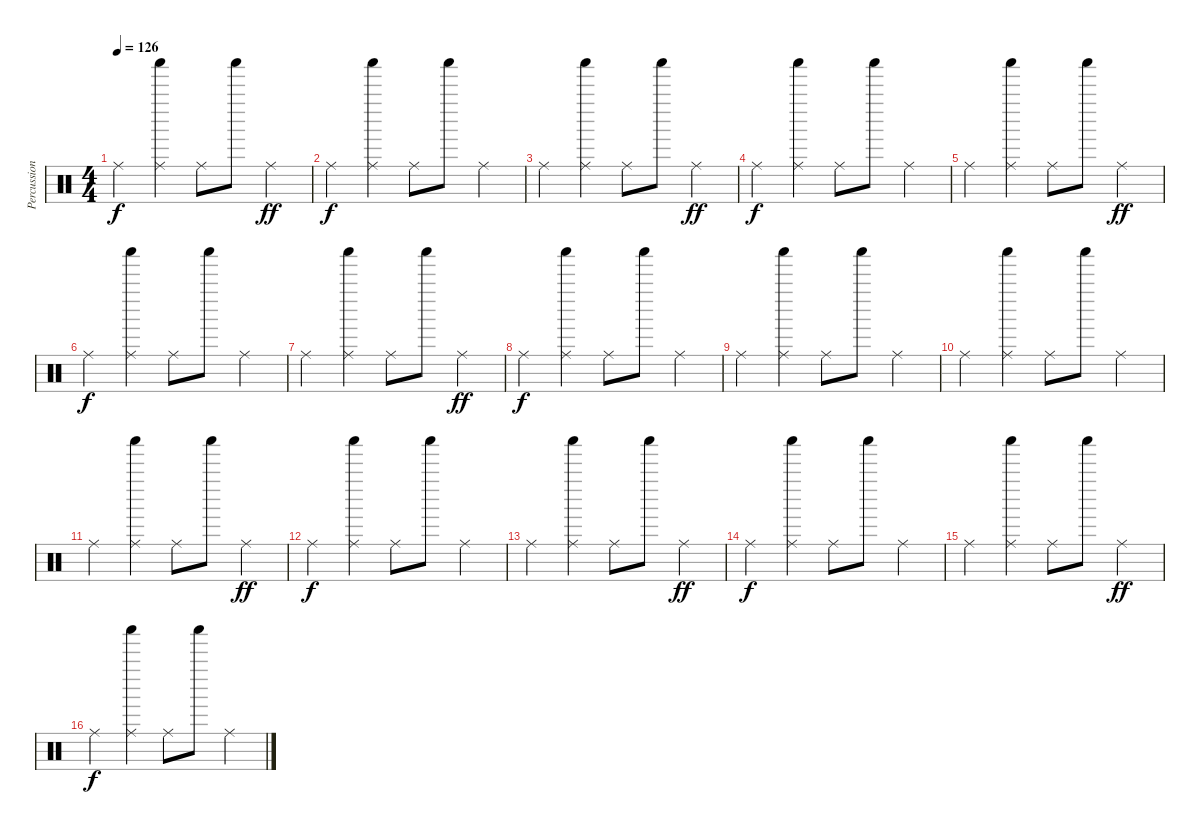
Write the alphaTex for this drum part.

\track ("Percussion" "Percussion") {instrument percussion}
\staff {score}
\articulation defaults
\ts (4 4)
\tempo 126
\clef neutral
\ks c "Ride (middle)".4{dy f}
("Ride (middle)" "Shaker (hit)").4 "Ride (middle)".8 "Shaker (hit)".8 "Ride (middle)".4{dy ff} |
"Ride (middle)".4{dy f} ("Ride (middle)" "Shaker (hit)").4 "Ride (middle)".8 "Shaker (hit)".8 "Ride (middle)".4 |
"Ride (middle)".4 ("Ride (middle)" "Shaker (hit)").4 "Ride (middle)".8 "Shaker (hit)".8 "Ride (middle)".4{dy ff} |
"Ride (middle)".4{dy f} ("Ride (middle)" "Shaker (hit)").4 "Ride (middle)".8 "Shaker (hit)".8 "Ride (middle)".4 |
"Ride (middle)".4 ("Ride (middle)" "Shaker (hit)").4 "Ride (middle)".8 "Shaker (hit)".8 "Ride (middle)".4{dy ff} |
"Ride (middle)".4{dy f} ("Ride (middle)" "Shaker (hit)").4 "Ride (middle)".8 "Shaker (hit)".8 "Ride (middle)".4 |
"Ride (middle)".4 ("Ride (middle)" "Shaker (hit)").4 "Ride (middle)".8 "Shaker (hit)".8 "Ride (middle)".4{dy ff} |
"Ride (middle)".4{dy f} ("Ride (middle)" "Shaker (hit)").4 "Ride (middle)".8 "Shaker (hit)".8 "Ride (middle)".4 |
"Ride (middle)".4 ("Ride (middle)" "Shaker (hit)").4 "Ride (middle)".8 "Shaker (hit)".8 "Ride (middle)".4 |
"Ride (middle)".4 ("Ride (middle)" "Shaker (hit)").4 "Ride (middle)".8 "Shaker (hit)".8 "Ride (middle)".4 |
"Ride (middle)".4 ("Ride (middle)" "Shaker (hit)").4 "Ride (middle)".8 "Shaker (hit)".8 "Ride (middle)".4{dy ff} |
"Ride (middle)".4{dy f} ("Ride (middle)" "Shaker (hit)").4 "Ride (middle)".8 "Shaker (hit)".8 "Ride (middle)".4 |
"Ride (middle)".4 ("Ride (middle)" "Shaker (hit)").4 "Ride (middle)".8 "Shaker (hit)".8 "Ride (middle)".4{dy ff} |
"Ride (middle)".4{dy f} ("Ride (middle)" "Shaker (hit)").4 "Ride (middle)".8 "Shaker (hit)".8 "Ride (middle)".4 |
"Ride (middle)".4 ("Ride (middle)" "Shaker (hit)").4 "Ride (middle)".8 "Shaker (hit)".8 "Ride (middle)".4{dy ff} |
"Ride (middle)".4{dy f} ("Ride (middle)" "Shaker (hit)").4 "Ride (middle)".8 "Shaker (hit)".8 "Ride (middle)".4
